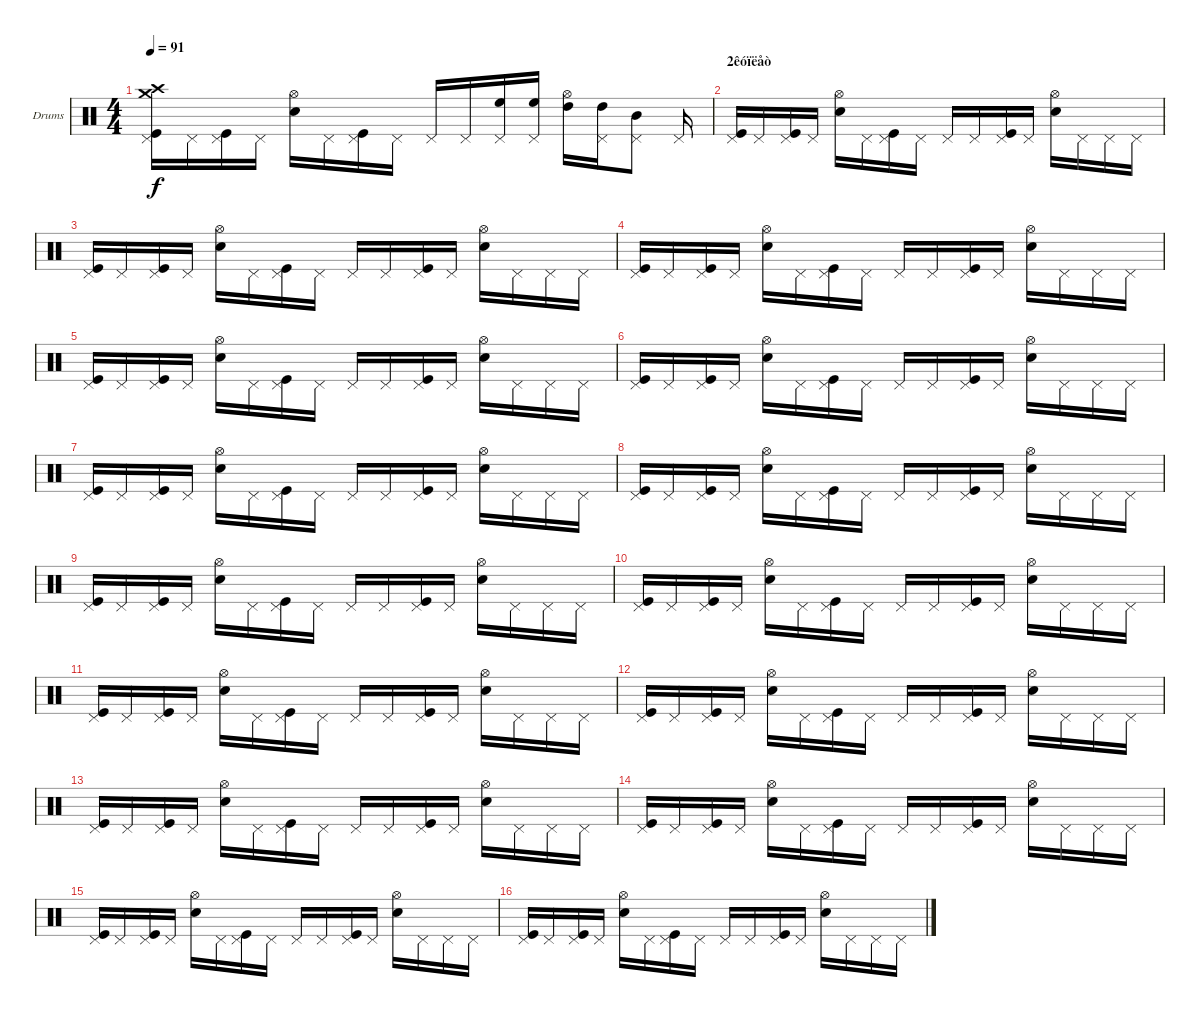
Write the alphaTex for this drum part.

\bracketExtendMode groupsimilarinstruments
\firstSystemTrackNameOrientation horizontal
\otherSystemsTrackNameOrientation horizontal
\track ("Drumkit" "Drums") {instrument percussion}
\staff {score}
\articulation defaults
\ts (4 4)
\tempo 91
\clef neutral
\ks c
("Pedal Hi-Hat (hit)" "Kick (hit)" "Crash medium (hit)" "Crash high (hit)").16{dy f} "Pedal Hi-Hat (hit)".16 ("Pedal Hi-Hat (hit)" "Kick (hit)").16 "Pedal Hi-Hat (hit)".16 ("Hi-Hat (open)" "Snare (hit) 2").16 "Pedal Hi-Hat (hit)".16 ("Pedal Hi-Hat (hit)" "Kick (hit)").16 "Pedal Hi-Hat (hit)".16 "Pedal Hi-Hat (hit)".16 "Pedal Hi-Hat (hit)".16 ("Pedal Hi-Hat (hit)" "High Floor Tom (hit)").16 ("Pedal Hi-Hat (hit)" "High Floor Tom (hit)").16 ("Hi-Hat (open)" "High Tom (hit)").16 ("Pedal Hi-Hat (hit)" "High Tom (hit)").16 ("Pedal Hi-Hat (hit)" "Mid Tom (hit)").8 "Pedal Hi-Hat (hit)".16 |
\section ("" "2êóïëåò")
("Pedal Hi-Hat (hit)" "Kick (hit)").16 "Pedal Hi-Hat (hit)".16 ("Pedal Hi-Hat (hit)" "Kick (hit)").16 "Pedal Hi-Hat (hit)".16 ("Hi-Hat (open)" "Snare (hit) 2").16 "Pedal Hi-Hat (hit)".16 ("Pedal Hi-Hat (hit)" "Kick (hit)").16 "Pedal Hi-Hat (hit)".16 "Pedal Hi-Hat (hit)".16 "Pedal Hi-Hat (hit)".16 ("Pedal Hi-Hat (hit)" "Kick (hit)").16 "Pedal Hi-Hat (hit)".16 ("Hi-Hat (open)" "Snare (hit) 2").16 "Pedal Hi-Hat (hit)".16 "Pedal Hi-Hat (hit)".16 "Pedal Hi-Hat (hit)".16 |
("Pedal Hi-Hat (hit)" "Kick (hit)").16 "Pedal Hi-Hat (hit)".16 ("Pedal Hi-Hat (hit)" "Kick (hit)").16 "Pedal Hi-Hat (hit)".16 ("Hi-Hat (open)" "Snare (hit) 2").16 "Pedal Hi-Hat (hit)".16 ("Pedal Hi-Hat (hit)" "Kick (hit)").16 "Pedal Hi-Hat (hit)".16 "Pedal Hi-Hat (hit)".16 "Pedal Hi-Hat (hit)".16 ("Pedal Hi-Hat (hit)" "Kick (hit)").16 "Pedal Hi-Hat (hit)".16 ("Hi-Hat (open)" "Snare (hit) 2").16 "Pedal Hi-Hat (hit)".16 "Pedal Hi-Hat (hit)".16 "Pedal Hi-Hat (hit)".16 |
("Pedal Hi-Hat (hit)" "Kick (hit)").16 "Pedal Hi-Hat (hit)".16 ("Pedal Hi-Hat (hit)" "Kick (hit)").16 "Pedal Hi-Hat (hit)".16 ("Hi-Hat (open)" "Snare (hit) 2").16 "Pedal Hi-Hat (hit)".16 ("Pedal Hi-Hat (hit)" "Kick (hit)").16 "Pedal Hi-Hat (hit)".16 "Pedal Hi-Hat (hit)".16 "Pedal Hi-Hat (hit)".16 ("Pedal Hi-Hat (hit)" "Kick (hit)").16 "Pedal Hi-Hat (hit)".16 ("Hi-Hat (open)" "Snare (hit) 2").16 "Pedal Hi-Hat (hit)".16 "Pedal Hi-Hat (hit)".16 "Pedal Hi-Hat (hit)".16 |
("Pedal Hi-Hat (hit)" "Kick (hit)").16 "Pedal Hi-Hat (hit)".16 ("Pedal Hi-Hat (hit)" "Kick (hit)").16 "Pedal Hi-Hat (hit)".16 ("Hi-Hat (open)" "Snare (hit) 2").16 "Pedal Hi-Hat (hit)".16 ("Pedal Hi-Hat (hit)" "Kick (hit)").16 "Pedal Hi-Hat (hit)".16 "Pedal Hi-Hat (hit)".16 "Pedal Hi-Hat (hit)".16 ("Pedal Hi-Hat (hit)" "Kick (hit)").16 "Pedal Hi-Hat (hit)".16 ("Hi-Hat (open)" "Snare (hit) 2").16 "Pedal Hi-Hat (hit)".16 "Pedal Hi-Hat (hit)".16 "Pedal Hi-Hat (hit)".16 |
("Pedal Hi-Hat (hit)" "Kick (hit)").16 "Pedal Hi-Hat (hit)".16 ("Pedal Hi-Hat (hit)" "Kick (hit)").16 "Pedal Hi-Hat (hit)".16 ("Hi-Hat (open)" "Snare (hit) 2").16 "Pedal Hi-Hat (hit)".16 ("Pedal Hi-Hat (hit)" "Kick (hit)").16 "Pedal Hi-Hat (hit)".16 "Pedal Hi-Hat (hit)".16 "Pedal Hi-Hat (hit)".16 ("Pedal Hi-Hat (hit)" "Kick (hit)").16 "Pedal Hi-Hat (hit)".16 ("Hi-Hat (open)" "Snare (hit) 2").16 "Pedal Hi-Hat (hit)".16 "Pedal Hi-Hat (hit)".16 "Pedal Hi-Hat (hit)".16 |
("Pedal Hi-Hat (hit)" "Kick (hit)").16 "Pedal Hi-Hat (hit)".16 ("Pedal Hi-Hat (hit)" "Kick (hit)").16 "Pedal Hi-Hat (hit)".16 ("Hi-Hat (open)" "Snare (hit) 2").16 "Pedal Hi-Hat (hit)".16 ("Pedal Hi-Hat (hit)" "Kick (hit)").16 "Pedal Hi-Hat (hit)".16 "Pedal Hi-Hat (hit)".16 "Pedal Hi-Hat (hit)".16 ("Pedal Hi-Hat (hit)" "Kick (hit)").16 "Pedal Hi-Hat (hit)".16 ("Hi-Hat (open)" "Snare (hit) 2").16 "Pedal Hi-Hat (hit)".16 "Pedal Hi-Hat (hit)".16 "Pedal Hi-Hat (hit)".16 |
("Pedal Hi-Hat (hit)" "Kick (hit)").16 "Pedal Hi-Hat (hit)".16 ("Pedal Hi-Hat (hit)" "Kick (hit)").16 "Pedal Hi-Hat (hit)".16 ("Hi-Hat (open)" "Snare (hit) 2").16 "Pedal Hi-Hat (hit)".16 ("Pedal Hi-Hat (hit)" "Kick (hit)").16 "Pedal Hi-Hat (hit)".16 "Pedal Hi-Hat (hit)".16 "Pedal Hi-Hat (hit)".16 ("Pedal Hi-Hat (hit)" "Kick (hit)").16 "Pedal Hi-Hat (hit)".16 ("Hi-Hat (open)" "Snare (hit) 2").16 "Pedal Hi-Hat (hit)".16 "Pedal Hi-Hat (hit)".16 "Pedal Hi-Hat (hit)".16 |
("Pedal Hi-Hat (hit)" "Kick (hit)").16 "Pedal Hi-Hat (hit)".16 ("Pedal Hi-Hat (hit)" "Kick (hit)").16 "Pedal Hi-Hat (hit)".16 ("Hi-Hat (open)" "Snare (hit) 2").16 "Pedal Hi-Hat (hit)".16 ("Pedal Hi-Hat (hit)" "Kick (hit)").16 "Pedal Hi-Hat (hit)".16 "Pedal Hi-Hat (hit)".16 "Pedal Hi-Hat (hit)".16 ("Pedal Hi-Hat (hit)" "Kick (hit)").16 "Pedal Hi-Hat (hit)".16 ("Hi-Hat (open)" "Snare (hit) 2").16 "Pedal Hi-Hat (hit)".16 "Pedal Hi-Hat (hit)".16 "Pedal Hi-Hat (hit)".16 |
("Pedal Hi-Hat (hit)" "Kick (hit)").16 "Pedal Hi-Hat (hit)".16 ("Pedal Hi-Hat (hit)" "Kick (hit)").16 "Pedal Hi-Hat (hit)".16 ("Hi-Hat (open)" "Snare (hit) 2").16 "Pedal Hi-Hat (hit)".16 ("Pedal Hi-Hat (hit)" "Kick (hit)").16 "Pedal Hi-Hat (hit)".16 "Pedal Hi-Hat (hit)".16 "Pedal Hi-Hat (hit)".16 ("Pedal Hi-Hat (hit)" "Kick (hit)").16 "Pedal Hi-Hat (hit)".16 ("Hi-Hat (open)" "Snare (hit) 2").16 "Pedal Hi-Hat (hit)".16 "Pedal Hi-Hat (hit)".16 "Pedal Hi-Hat (hit)".16 |
("Pedal Hi-Hat (hit)" "Kick (hit)").16 "Pedal Hi-Hat (hit)".16 ("Pedal Hi-Hat (hit)" "Kick (hit)").16 "Pedal Hi-Hat (hit)".16 ("Hi-Hat (open)" "Snare (hit) 2").16 "Pedal Hi-Hat (hit)".16 ("Pedal Hi-Hat (hit)" "Kick (hit)").16 "Pedal Hi-Hat (hit)".16 "Pedal Hi-Hat (hit)".16 "Pedal Hi-Hat (hit)".16 ("Pedal Hi-Hat (hit)" "Kick (hit)").16 "Pedal Hi-Hat (hit)".16 ("Hi-Hat (open)" "Snare (hit) 2").16 "Pedal Hi-Hat (hit)".16 "Pedal Hi-Hat (hit)".16 "Pedal Hi-Hat (hit)".16 |
("Pedal Hi-Hat (hit)" "Kick (hit)").16 "Pedal Hi-Hat (hit)".16 ("Pedal Hi-Hat (hit)" "Kick (hit)").16 "Pedal Hi-Hat (hit)".16 ("Hi-Hat (open)" "Snare (hit) 2").16 "Pedal Hi-Hat (hit)".16 ("Pedal Hi-Hat (hit)" "Kick (hit)").16 "Pedal Hi-Hat (hit)".16 "Pedal Hi-Hat (hit)".16 "Pedal Hi-Hat (hit)".16 ("Pedal Hi-Hat (hit)" "Kick (hit)").16 "Pedal Hi-Hat (hit)".16 ("Hi-Hat (open)" "Snare (hit) 2").16 "Pedal Hi-Hat (hit)".16 "Pedal Hi-Hat (hit)".16 "Pedal Hi-Hat (hit)".16 |
("Pedal Hi-Hat (hit)" "Kick (hit)").16 "Pedal Hi-Hat (hit)".16 ("Pedal Hi-Hat (hit)" "Kick (hit)").16 "Pedal Hi-Hat (hit)".16 ("Hi-Hat (open)" "Snare (hit) 2").16 "Pedal Hi-Hat (hit)".16 ("Pedal Hi-Hat (hit)" "Kick (hit)").16 "Pedal Hi-Hat (hit)".16 "Pedal Hi-Hat (hit)".16 "Pedal Hi-Hat (hit)".16 ("Pedal Hi-Hat (hit)" "Kick (hit)").16 "Pedal Hi-Hat (hit)".16 ("Hi-Hat (open)" "Snare (hit) 2").16 "Pedal Hi-Hat (hit)".16 "Pedal Hi-Hat (hit)".16 "Pedal Hi-Hat (hit)".16 |
("Pedal Hi-Hat (hit)" "Kick (hit)").16 "Pedal Hi-Hat (hit)".16 ("Pedal Hi-Hat (hit)" "Kick (hit)").16 "Pedal Hi-Hat (hit)".16 ("Hi-Hat (open)" "Snare (hit) 2").16 "Pedal Hi-Hat (hit)".16 ("Pedal Hi-Hat (hit)" "Kick (hit)").16 "Pedal Hi-Hat (hit)".16 "Pedal Hi-Hat (hit)".16 "Pedal Hi-Hat (hit)".16 ("Pedal Hi-Hat (hit)" "Kick (hit)").16 "Pedal Hi-Hat (hit)".16 ("Hi-Hat (open)" "Snare (hit) 2").16 "Pedal Hi-Hat (hit)".16 "Pedal Hi-Hat (hit)".16 "Pedal Hi-Hat (hit)".16 |
("Pedal Hi-Hat (hit)" "Kick (hit)").16 "Pedal Hi-Hat (hit)".16 ("Pedal Hi-Hat (hit)" "Kick (hit)").16 "Pedal Hi-Hat (hit)".16 ("Hi-Hat (open)" "Snare (hit) 2").16 "Pedal Hi-Hat (hit)".16 ("Pedal Hi-Hat (hit)" "Kick (hit)").16 "Pedal Hi-Hat (hit)".16 "Pedal Hi-Hat (hit)".16 "Pedal Hi-Hat (hit)".16 ("Pedal Hi-Hat (hit)" "Kick (hit)").16 "Pedal Hi-Hat (hit)".16 ("Hi-Hat (open)" "Snare (hit) 2").16 "Pedal Hi-Hat (hit)".16 "Pedal Hi-Hat (hit)".16 "Pedal Hi-Hat (hit)".16 |
("Pedal Hi-Hat (hit)" "Kick (hit)").16 "Pedal Hi-Hat (hit)".16 ("Pedal Hi-Hat (hit)" "Kick (hit)").16 "Pedal Hi-Hat (hit)".16 ("Hi-Hat (open)" "Snare (hit) 2").16 "Pedal Hi-Hat (hit)".16 ("Pedal Hi-Hat (hit)" "Kick (hit)").16 "Pedal Hi-Hat (hit)".16 "Pedal Hi-Hat (hit)".16 "Pedal Hi-Hat (hit)".16 ("Pedal Hi-Hat (hit)" "Kick (hit)").16 "Pedal Hi-Hat (hit)".16 ("Hi-Hat (open)" "Snare (hit) 2").16 "Pedal Hi-Hat (hit)".16 "Pedal Hi-Hat (hit)".16 "Pedal Hi-Hat (hit)".16
